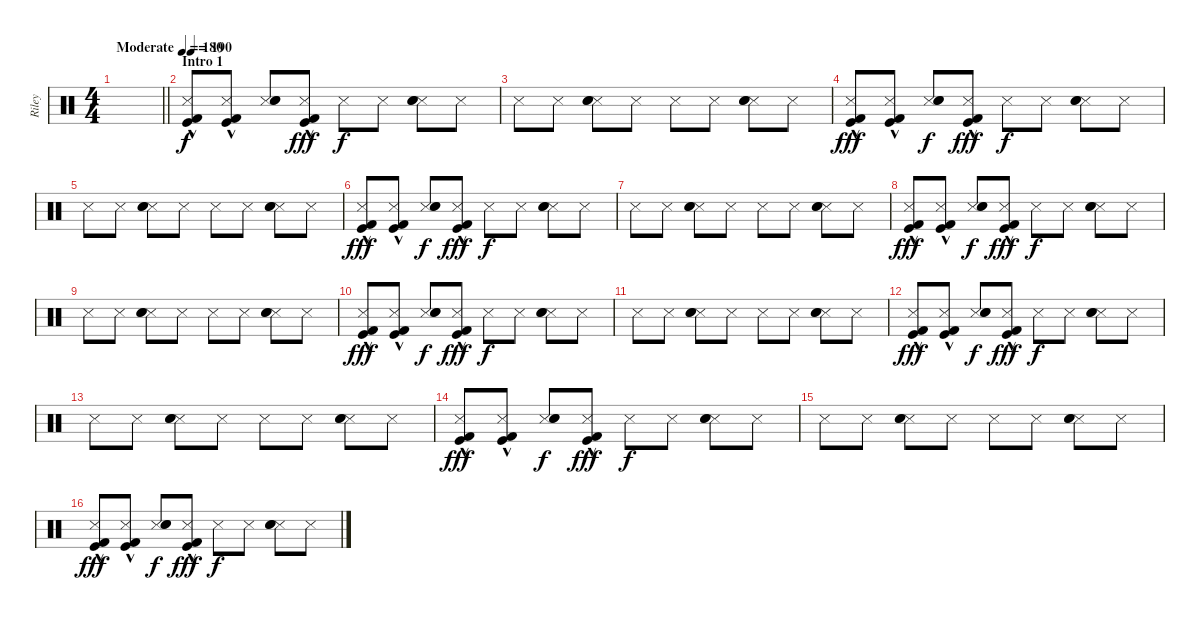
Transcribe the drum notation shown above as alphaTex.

\track ("Riley" "Riley") {instrument percussion}
\staff {score}
\articulation defaults
\ts (4 4)
\tempo (180 "Moderate")
\clef neutral
\barLineRight lightlight
\ks c
|
\section ("" "Intro 1")
\tempo 190
("Snare (side stick) 3" "Kick (hit)"{hac} "Kick (hit) 2"{hac}).8 ("Snare (side stick) 3" "Kick (hit)"{hac} "Kick (hit) 2"{hac}).8 ("Snare (side stick) 3" "Electric Snare (hit)" "Snare (hit) 2").8{dy f} ("Snare (side stick) 3" "Kick (hit)"{hac} "Kick (hit) 2"{hac}).8{dy fff} "Snare (side stick) 3".8{dy f} "Snare (side stick) 3".8 ("Snare (side stick) 3" "Electric Snare (hit)" "Snare (hit) 2").8 "Snare (side stick) 3".8 |
"Snare (side stick) 3".8 "Snare (side stick) 3".8 ("Snare (side stick) 3" "Electric Snare (hit)" "Snare (hit) 2").8 "Snare (side stick) 3".8 "Snare (side stick) 3".8 "Snare (side stick) 3".8 ("Snare (side stick) 3" "Electric Snare (hit)" "Snare (hit) 2").8 "Snare (side stick) 3".8 |
("Snare (side stick) 3" "Kick (hit)"{hac} "Kick (hit) 2"{hac}).8{dy fff} ("Snare (side stick) 3" "Kick (hit)"{hac} "Kick (hit) 2"{hac}).8 ("Snare (side stick) 3" "Electric Snare (hit)" "Snare (hit) 2").8{dy f} ("Snare (side stick) 3" "Kick (hit)"{hac} "Kick (hit) 2"{hac}).8{dy fff} "Snare (side stick) 3".8{dy f} "Snare (side stick) 3".8 ("Snare (side stick) 3" "Electric Snare (hit)" "Snare (hit) 2").8 "Snare (side stick) 3".8 |
"Snare (side stick) 3".8 "Snare (side stick) 3".8 ("Snare (side stick) 3" "Electric Snare (hit)" "Snare (hit) 2").8 "Snare (side stick) 3".8 "Snare (side stick) 3".8 "Snare (side stick) 3".8 ("Snare (side stick) 3" "Electric Snare (hit)" "Snare (hit) 2").8 "Snare (side stick) 3".8 |
("Snare (side stick) 3" "Kick (hit)"{hac} "Kick (hit) 2"{hac}).8{dy fff} ("Snare (side stick) 3" "Kick (hit)"{hac} "Kick (hit) 2"{hac}).8 ("Snare (side stick) 3" "Electric Snare (hit)" "Snare (hit) 2").8{dy f} ("Snare (side stick) 3" "Kick (hit)"{hac} "Kick (hit) 2"{hac}).8{dy fff} "Snare (side stick) 3".8{dy f} "Snare (side stick) 3".8 ("Snare (side stick) 3" "Electric Snare (hit)" "Snare (hit) 2").8 "Snare (side stick) 3".8 |
"Snare (side stick) 3".8 "Snare (side stick) 3".8 ("Snare (side stick) 3" "Electric Snare (hit)" "Snare (hit) 2").8 "Snare (side stick) 3".8 "Snare (side stick) 3".8 "Snare (side stick) 3".8 ("Snare (side stick) 3" "Electric Snare (hit)" "Snare (hit) 2").8 "Snare (side stick) 3".8 |
("Snare (side stick) 3" "Kick (hit)"{hac} "Kick (hit) 2"{hac}).8{dy fff} ("Snare (side stick) 3" "Kick (hit)"{hac} "Kick (hit) 2"{hac}).8 ("Snare (side stick) 3" "Electric Snare (hit)" "Snare (hit) 2").8{dy f} ("Snare (side stick) 3" "Kick (hit)"{hac} "Kick (hit) 2"{hac}).8{dy fff} "Snare (side stick) 3".8{dy f} "Snare (side stick) 3".8 ("Snare (side stick) 3" "Electric Snare (hit)" "Snare (hit) 2").8 "Snare (side stick) 3".8 |
"Snare (side stick) 3".8 "Snare (side stick) 3".8 ("Snare (side stick) 3" "Electric Snare (hit)" "Snare (hit) 2").8 "Snare (side stick) 3".8 "Snare (side stick) 3".8 "Snare (side stick) 3".8 ("Snare (side stick) 3" "Electric Snare (hit)" "Snare (hit) 2").8 "Snare (side stick) 3".8 |
("Snare (side stick) 3" "Kick (hit)"{hac} "Kick (hit) 2"{hac}).8{dy fff} ("Snare (side stick) 3" "Kick (hit)"{hac} "Kick (hit) 2"{hac}).8 ("Snare (side stick) 3" "Electric Snare (hit)" "Snare (hit) 2").8{dy f} ("Snare (side stick) 3" "Kick (hit)"{hac} "Kick (hit) 2"{hac}).8{dy fff} "Snare (side stick) 3".8{dy f} "Snare (side stick) 3".8 ("Snare (side stick) 3" "Electric Snare (hit)" "Snare (hit) 2").8 "Snare (side stick) 3".8 |
"Snare (side stick) 3".8 "Snare (side stick) 3".8 ("Snare (side stick) 3" "Electric Snare (hit)" "Snare (hit) 2").8 "Snare (side stick) 3".8 "Snare (side stick) 3".8 "Snare (side stick) 3".8 ("Snare (side stick) 3" "Electric Snare (hit)" "Snare (hit) 2").8 "Snare (side stick) 3".8 |
("Snare (side stick) 3" "Kick (hit)"{hac} "Kick (hit) 2"{hac}).8{dy fff} ("Snare (side stick) 3" "Kick (hit)"{hac} "Kick (hit) 2"{hac}).8 ("Snare (side stick) 3" "Electric Snare (hit)" "Snare (hit) 2").8{dy f} ("Snare (side stick) 3" "Kick (hit)"{hac} "Kick (hit) 2"{hac}).8{dy fff} "Snare (side stick) 3".8{dy f} "Snare (side stick) 3".8 ("Snare (side stick) 3" "Electric Snare (hit)" "Snare (hit) 2").8 "Snare (side stick) 3".8 |
"Snare (side stick) 3".8 "Snare (side stick) 3".8 ("Snare (side stick) 3" "Electric Snare (hit)" "Snare (hit) 2").8 "Snare (side stick) 3".8 "Snare (side stick) 3".8 "Snare (side stick) 3".8 ("Snare (side stick) 3" "Electric Snare (hit)" "Snare (hit) 2").8 "Snare (side stick) 3".8 |
("Snare (side stick) 3" "Kick (hit)"{hac} "Kick (hit) 2"{hac}).8{dy fff} ("Snare (side stick) 3" "Kick (hit)"{hac} "Kick (hit) 2"{hac}).8 ("Snare (side stick) 3" "Electric Snare (hit)" "Snare (hit) 2").8{dy f} ("Snare (side stick) 3" "Kick (hit)"{hac} "Kick (hit) 2"{hac}).8{dy fff} "Snare (side stick) 3".8{dy f} "Snare (side stick) 3".8 ("Snare (side stick) 3" "Electric Snare (hit)" "Snare (hit) 2").8 "Snare (side stick) 3".8 |
"Snare (side stick) 3".8 "Snare (side stick) 3".8 ("Snare (side stick) 3" "Electric Snare (hit)" "Snare (hit) 2").8 "Snare (side stick) 3".8 "Snare (side stick) 3".8 "Snare (side stick) 3".8 ("Snare (side stick) 3" "Electric Snare (hit)" "Snare (hit) 2").8 "Snare (side stick) 3".8 |
("Snare (side stick) 3" "Kick (hit)"{hac} "Kick (hit) 2"{hac}).8{dy fff} ("Snare (side stick) 3" "Kick (hit)"{hac} "Kick (hit) 2"{hac}).8 ("Snare (side stick) 3" "Electric Snare (hit)" "Snare (hit) 2").8{dy f} ("Snare (side stick) 3" "Kick (hit)"{hac} "Kick (hit) 2"{hac}).8{dy fff} "Snare (side stick) 3".8{dy f} "Snare (side stick) 3".8 ("Snare (side stick) 3" "Electric Snare (hit)" "Snare (hit) 2").8 "Snare (side stick) 3".8
